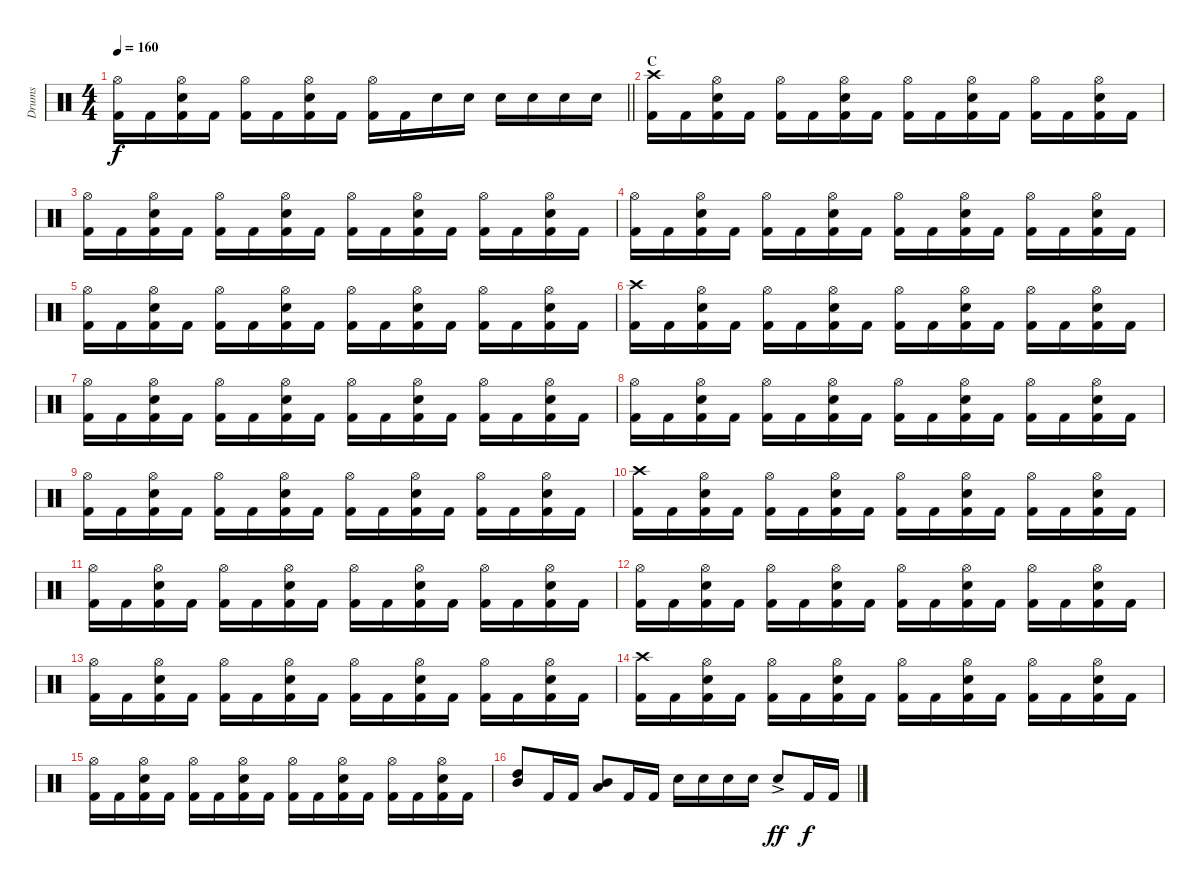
\track ("Drums" "Drums") {instrument percussion}
\staff {score}
\articulation defaults
\ts (4 4)
\tempo 160
\clef neutral
\barLineRight lightlight
\ks c
("Hi-Hat (open)" "Kick (hit) 2").16{dy f} "Kick (hit) 2".16 ("Hi-Hat (open)" "Snare (hit) 2" "Kick (hit) 2").16 "Kick (hit) 2".16 ("Hi-Hat (open)" "Kick (hit) 2").16 "Kick (hit) 2".16 ("Hi-Hat (open)" "Snare (hit) 2" "Kick (hit) 2").16 "Kick (hit) 2".16 ("Hi-Hat (open)" "Kick (hit) 2").16 "Kick (hit) 2".16 "Snare (hit) 2".16 "Snare (hit) 2".16 "Snare (hit) 2".16 "Snare (hit) 2".16 "Snare (hit) 2".16 "Snare (hit) 2".16 |
\section ("" "C")
("Crash high (hit)" "Kick (hit) 2").16 "Kick (hit) 2".16 ("Hi-Hat (open)" "Snare (hit) 2" "Kick (hit) 2").16 "Kick (hit) 2".16 ("Hi-Hat (open)" "Kick (hit) 2").16 "Kick (hit) 2".16 ("Hi-Hat (open)" "Snare (hit) 2" "Kick (hit) 2").16 "Kick (hit) 2".16 ("Hi-Hat (open)" "Kick (hit) 2").16 "Kick (hit) 2".16 ("Hi-Hat (open)" "Snare (hit) 2" "Kick (hit) 2").16 "Kick (hit) 2".16 ("Hi-Hat (open)" "Kick (hit) 2").16 "Kick (hit) 2".16 ("Hi-Hat (open)" "Snare (hit) 2" "Kick (hit) 2").16 "Kick (hit) 2".16 |
("Hi-Hat (open)" "Kick (hit) 2").16 "Kick (hit) 2".16 ("Hi-Hat (open)" "Snare (hit) 2" "Kick (hit) 2").16 "Kick (hit) 2".16 ("Hi-Hat (open)" "Kick (hit) 2").16 "Kick (hit) 2".16 ("Hi-Hat (open)" "Snare (hit) 2" "Kick (hit) 2").16 "Kick (hit) 2".16 ("Hi-Hat (open)" "Kick (hit) 2").16 "Kick (hit) 2".16 ("Hi-Hat (open)" "Snare (hit) 2" "Kick (hit) 2").16 "Kick (hit) 2".16 ("Hi-Hat (open)" "Kick (hit) 2").16 "Kick (hit) 2".16 ("Hi-Hat (open)" "Snare (hit) 2" "Kick (hit) 2").16 "Kick (hit) 2".16 |
("Hi-Hat (open)" "Kick (hit) 2").16 "Kick (hit) 2".16 ("Hi-Hat (open)" "Snare (hit) 2" "Kick (hit) 2").16 "Kick (hit) 2".16 ("Hi-Hat (open)" "Kick (hit) 2").16 "Kick (hit) 2".16 ("Hi-Hat (open)" "Snare (hit) 2" "Kick (hit) 2").16 "Kick (hit) 2".16 ("Hi-Hat (open)" "Kick (hit) 2").16 "Kick (hit) 2".16 ("Hi-Hat (open)" "Snare (hit) 2" "Kick (hit) 2").16 "Kick (hit) 2".16 ("Hi-Hat (open)" "Kick (hit) 2").16 "Kick (hit) 2".16 ("Hi-Hat (open)" "Snare (hit) 2" "Kick (hit) 2").16 "Kick (hit) 2".16 |
("Hi-Hat (open)" "Kick (hit) 2").16 "Kick (hit) 2".16 ("Hi-Hat (open)" "Snare (hit) 2" "Kick (hit) 2").16 "Kick (hit) 2".16 ("Hi-Hat (open)" "Kick (hit) 2").16 "Kick (hit) 2".16 ("Hi-Hat (open)" "Snare (hit) 2" "Kick (hit) 2").16 "Kick (hit) 2".16 ("Hi-Hat (open)" "Kick (hit) 2").16 "Kick (hit) 2".16 ("Hi-Hat (open)" "Snare (hit) 2" "Kick (hit) 2").16 "Kick (hit) 2".16 ("Hi-Hat (open)" "Kick (hit) 2").16 "Kick (hit) 2".16 ("Hi-Hat (open)" "Snare (hit) 2" "Kick (hit) 2").16 "Kick (hit) 2".16 |
("Crash high (hit)" "Kick (hit) 2").16 "Kick (hit) 2".16 ("Hi-Hat (open)" "Snare (hit) 2" "Kick (hit) 2").16 "Kick (hit) 2".16 ("Hi-Hat (open)" "Kick (hit) 2").16 "Kick (hit) 2".16 ("Hi-Hat (open)" "Snare (hit) 2" "Kick (hit) 2").16 "Kick (hit) 2".16 ("Hi-Hat (open)" "Kick (hit) 2").16 "Kick (hit) 2".16 ("Hi-Hat (open)" "Snare (hit) 2" "Kick (hit) 2").16 "Kick (hit) 2".16 ("Hi-Hat (open)" "Kick (hit) 2").16 "Kick (hit) 2".16 ("Hi-Hat (open)" "Snare (hit) 2" "Kick (hit) 2").16 "Kick (hit) 2".16 |
("Hi-Hat (open)" "Kick (hit) 2").16 "Kick (hit) 2".16 ("Hi-Hat (open)" "Snare (hit) 2" "Kick (hit) 2").16 "Kick (hit) 2".16 ("Hi-Hat (open)" "Kick (hit) 2").16 "Kick (hit) 2".16 ("Hi-Hat (open)" "Snare (hit) 2" "Kick (hit) 2").16 "Kick (hit) 2".16 ("Hi-Hat (open)" "Kick (hit) 2").16 "Kick (hit) 2".16 ("Hi-Hat (open)" "Snare (hit) 2" "Kick (hit) 2").16 "Kick (hit) 2".16 ("Hi-Hat (open)" "Kick (hit) 2").16 "Kick (hit) 2".16 ("Hi-Hat (open)" "Snare (hit) 2" "Kick (hit) 2").16 "Kick (hit) 2".16 |
("Hi-Hat (open)" "Kick (hit) 2").16 "Kick (hit) 2".16 ("Hi-Hat (open)" "Snare (hit) 2" "Kick (hit) 2").16 "Kick (hit) 2".16 ("Hi-Hat (open)" "Kick (hit) 2").16 "Kick (hit) 2".16 ("Hi-Hat (open)" "Snare (hit) 2" "Kick (hit) 2").16 "Kick (hit) 2".16 ("Hi-Hat (open)" "Kick (hit) 2").16 "Kick (hit) 2".16 ("Hi-Hat (open)" "Snare (hit) 2" "Kick (hit) 2").16 "Kick (hit) 2".16 ("Hi-Hat (open)" "Kick (hit) 2").16 "Kick (hit) 2".16 ("Hi-Hat (open)" "Snare (hit) 2" "Kick (hit) 2").16 "Kick (hit) 2".16 |
("Hi-Hat (open)" "Kick (hit) 2").16 "Kick (hit) 2".16 ("Hi-Hat (open)" "Snare (hit) 2" "Kick (hit) 2").16 "Kick (hit) 2".16 ("Hi-Hat (open)" "Kick (hit) 2").16 "Kick (hit) 2".16 ("Hi-Hat (open)" "Snare (hit) 2" "Kick (hit) 2").16 "Kick (hit) 2".16 ("Hi-Hat (open)" "Kick (hit) 2").16 "Kick (hit) 2".16 ("Hi-Hat (open)" "Snare (hit) 2" "Kick (hit) 2").16 "Kick (hit) 2".16 ("Hi-Hat (open)" "Kick (hit) 2").16 "Kick (hit) 2".16 ("Hi-Hat (open)" "Snare (hit) 2" "Kick (hit) 2").16 "Kick (hit) 2".16 |
("Crash high (hit)" "Kick (hit) 2").16 "Kick (hit) 2".16 ("Hi-Hat (open)" "Snare (hit) 2" "Kick (hit) 2").16 "Kick (hit) 2".16 ("Hi-Hat (open)" "Kick (hit) 2").16 "Kick (hit) 2".16 ("Hi-Hat (open)" "Snare (hit) 2" "Kick (hit) 2").16 "Kick (hit) 2".16 ("Hi-Hat (open)" "Kick (hit) 2").16 "Kick (hit) 2".16 ("Hi-Hat (open)" "Snare (hit) 2" "Kick (hit) 2").16 "Kick (hit) 2".16 ("Hi-Hat (open)" "Kick (hit) 2").16 "Kick (hit) 2".16 ("Hi-Hat (open)" "Snare (hit) 2" "Kick (hit) 2").16 "Kick (hit) 2".16 |
("Hi-Hat (open)" "Kick (hit) 2").16 "Kick (hit) 2".16 ("Hi-Hat (open)" "Snare (hit) 2" "Kick (hit) 2").16 "Kick (hit) 2".16 ("Hi-Hat (open)" "Kick (hit) 2").16 "Kick (hit) 2".16 ("Hi-Hat (open)" "Snare (hit) 2" "Kick (hit) 2").16 "Kick (hit) 2".16 ("Hi-Hat (open)" "Kick (hit) 2").16 "Kick (hit) 2".16 ("Hi-Hat (open)" "Snare (hit) 2" "Kick (hit) 2").16 "Kick (hit) 2".16 ("Hi-Hat (open)" "Kick (hit) 2").16 "Kick (hit) 2".16 ("Hi-Hat (open)" "Snare (hit) 2" "Kick (hit) 2").16 "Kick (hit) 2".16 |
("Hi-Hat (open)" "Kick (hit) 2").16 "Kick (hit) 2".16 ("Hi-Hat (open)" "Snare (hit) 2" "Kick (hit) 2").16 "Kick (hit) 2".16 ("Hi-Hat (open)" "Kick (hit) 2").16 "Kick (hit) 2".16 ("Hi-Hat (open)" "Snare (hit) 2" "Kick (hit) 2").16 "Kick (hit) 2".16 ("Hi-Hat (open)" "Kick (hit) 2").16 "Kick (hit) 2".16 ("Hi-Hat (open)" "Snare (hit) 2" "Kick (hit) 2").16 "Kick (hit) 2".16 ("Hi-Hat (open)" "Kick (hit) 2").16 "Kick (hit) 2".16 ("Hi-Hat (open)" "Snare (hit) 2" "Kick (hit) 2").16 "Kick (hit) 2".16 |
("Hi-Hat (open)" "Kick (hit) 2").16 "Kick (hit) 2".16 ("Hi-Hat (open)" "Snare (hit) 2" "Kick (hit) 2").16 "Kick (hit) 2".16 ("Hi-Hat (open)" "Kick (hit) 2").16 "Kick (hit) 2".16 ("Hi-Hat (open)" "Snare (hit) 2" "Kick (hit) 2").16 "Kick (hit) 2".16 ("Hi-Hat (open)" "Kick (hit) 2").16 "Kick (hit) 2".16 ("Hi-Hat (open)" "Snare (hit) 2" "Kick (hit) 2").16 "Kick (hit) 2".16 ("Hi-Hat (open)" "Kick (hit) 2").16 "Kick (hit) 2".16 ("Hi-Hat (open)" "Snare (hit) 2" "Kick (hit) 2").16 "Kick (hit) 2".16 |
("Crash high (hit)" "Kick (hit) 2").16 "Kick (hit) 2".16 ("Hi-Hat (open)" "Snare (hit) 2" "Kick (hit) 2").16 "Kick (hit) 2".16 ("Hi-Hat (open)" "Kick (hit) 2").16 "Kick (hit) 2".16 ("Hi-Hat (open)" "Snare (hit) 2" "Kick (hit) 2").16 "Kick (hit) 2".16 ("Hi-Hat (open)" "Kick (hit) 2").16 "Kick (hit) 2".16 ("Hi-Hat (open)" "Snare (hit) 2" "Kick (hit) 2").16 "Kick (hit) 2".16 ("Hi-Hat (open)" "Kick (hit) 2").16 "Kick (hit) 2".16 ("Hi-Hat (open)" "Snare (hit) 2" "Kick (hit) 2").16 "Kick (hit) 2".16 |
("Hi-Hat (open)" "Kick (hit) 2").16 "Kick (hit) 2".16 ("Hi-Hat (open)" "Snare (hit) 2" "Kick (hit) 2").16 "Kick (hit) 2".16 ("Hi-Hat (open)" "Kick (hit) 2").16 "Kick (hit) 2".16 ("Hi-Hat (open)" "Snare (hit) 2" "Kick (hit) 2").16 "Kick (hit) 2".16 ("Hi-Hat (open)" "Kick (hit) 2").16 "Kick (hit) 2".16 ("Hi-Hat (open)" "Snare (hit) 2" "Kick (hit) 2").16 "Kick (hit) 2".16 ("Hi-Hat (open)" "Kick (hit) 2").16 "Kick (hit) 2".16 ("Hi-Hat (open)" "Snare (hit) 2" "Kick (hit) 2").16 "Kick (hit) 2".16 |
("High Tom (hit)" "Mid Tom (hit)").8 "Kick (hit) 2".16 "Kick (hit) 2".16 ("Mid Tom (hit)" "Low Tom (hit)").8 "Kick (hit) 2".16 "Kick (hit) 2".16 "Snare (hit) 2".16 "Snare (hit) 2".16 "Snare (hit) 2".16 "Snare (hit) 2".16 "Snare (hit) 2"{ac}.8{dy ff} "Kick (hit) 2".16{dy f} "Kick (hit) 2".16
